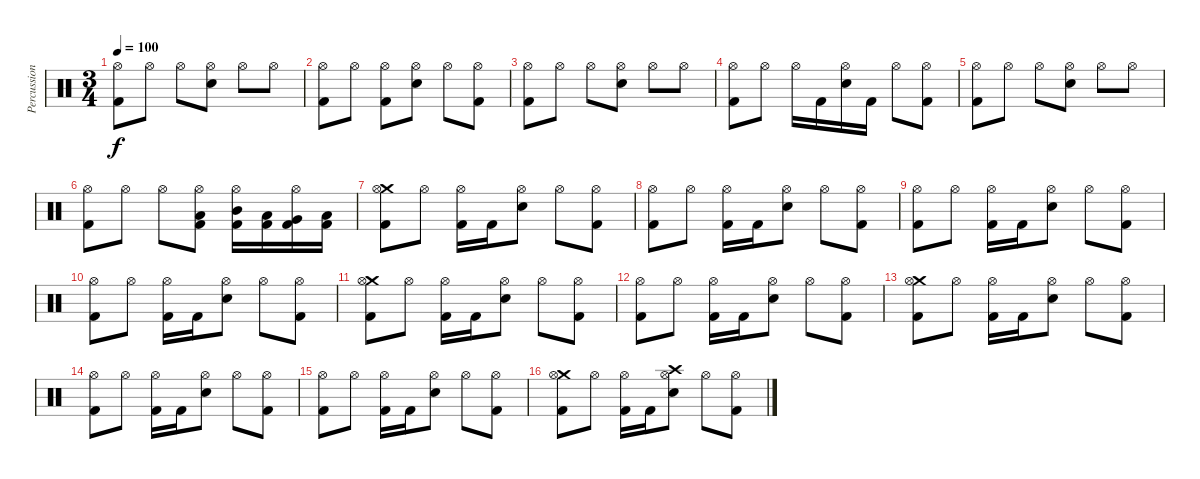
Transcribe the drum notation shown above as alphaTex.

\track ("Percussion" "Percussion") {instrument percussion}
\staff {score}
\articulation defaults
\ts (3 4)
\tempo 100
\clef neutral
\ks c
("Hi-Hat (open)" "Kick (hit) 2").8{dy f} "Hi-Hat (open)".8 "Hi-Hat (open)".8 ("Hi-Hat (open)" "Electric Snare (hit)").8 "Hi-Hat (open)".8 "Hi-Hat (open)".8 |
("Hi-Hat (open)" "Kick (hit) 2").8 "Hi-Hat (open)".8 ("Hi-Hat (open)" "Kick (hit) 2").8 ("Hi-Hat (open)" "Electric Snare (hit)").8 "Hi-Hat (open)".8 ("Hi-Hat (open)" "Kick (hit) 2").8 |
("Hi-Hat (open)" "Kick (hit) 2").8 "Hi-Hat (open)".8 "Hi-Hat (open)".8 ("Hi-Hat (open)" "Electric Snare (hit)").8 "Hi-Hat (open)".8 "Hi-Hat (open)".8 |
("Hi-Hat (open)" "Kick (hit) 2").8 "Hi-Hat (open)".8 "Hi-Hat (open)".16 "Kick (hit) 2".16 ("Hi-Hat (open)" "Electric Snare (hit)").16 "Kick (hit) 2".16 "Hi-Hat (open)".8 ("Hi-Hat (open)" "Kick (hit) 2").8 |
("Hi-Hat (open)" "Kick (hit) 2").8 "Hi-Hat (open)".8 "Hi-Hat (open)".8 ("Hi-Hat (open)" "Electric Snare (hit)").8 "Hi-Hat (open)".8 "Hi-Hat (open)".8 |
("Hi-Hat (open)" "Kick (hit) 2").8 "Hi-Hat (open)".8 "Hi-Hat (open)".8 ("Hi-Hat (open)" "Low Floor Tom (hit)" "Kick (hit) 2").8 ("Hi-Hat (open)" "Mid Tom (hit)" "Kick (hit) 2").16 ("Low Tom (hit)" "Kick (hit) 2").16 ("Hi-Hat (open)" "Very Low Tom (hit)" "Kick (hit) 2").16 ("Low Floor Tom (hit)" "Kick (hit) 2").16 |
("Crash medium (hit)" "Hi-Hat (open)" "Kick (hit) 2").8 "Hi-Hat (open)".8 ("Hi-Hat (open)" "Kick (hit) 2").16 "Kick (hit) 2".16 ("Hi-Hat (open)" "Electric Snare (hit)").8 "Hi-Hat (open)".8 ("Hi-Hat (open)" "Kick (hit) 2").8 |
("Hi-Hat (open)" "Kick (hit) 2").8 "Hi-Hat (open)".8 ("Hi-Hat (open)" "Kick (hit) 2").16 "Kick (hit) 2".16 ("Hi-Hat (open)" "Electric Snare (hit)").8 "Hi-Hat (open)".8 ("Hi-Hat (open)" "Kick (hit) 2").8 |
("Hi-Hat (open)" "Kick (hit) 2").8 "Hi-Hat (open)".8 ("Hi-Hat (open)" "Kick (hit) 2").16 "Kick (hit) 2".16 ("Hi-Hat (open)" "Electric Snare (hit)").8 "Hi-Hat (open)".8 ("Hi-Hat (open)" "Kick (hit) 2").8 |
("Hi-Hat (open)" "Kick (hit) 2").8 "Hi-Hat (open)".8 ("Hi-Hat (open)" "Kick (hit) 2").16 "Kick (hit) 2".16 ("Hi-Hat (open)" "Electric Snare (hit)").8 "Hi-Hat (open)".8 ("Hi-Hat (open)" "Kick (hit) 2").8 |
("Crash medium (hit)" "Hi-Hat (open)" "Kick (hit) 2").8 "Hi-Hat (open)".8 ("Hi-Hat (open)" "Kick (hit) 2").16 "Kick (hit) 2".16 ("Hi-Hat (open)" "Electric Snare (hit)").8 "Hi-Hat (open)".8 ("Hi-Hat (open)" "Kick (hit) 2").8 |
("Hi-Hat (open)" "Kick (hit) 2").8 "Hi-Hat (open)".8 ("Hi-Hat (open)" "Kick (hit) 2").16 "Kick (hit) 2".16 ("Hi-Hat (open)" "Electric Snare (hit)").8 "Hi-Hat (open)".8 ("Hi-Hat (open)" "Kick (hit) 2").8 |
("Crash medium (hit)" "Hi-Hat (open)" "Kick (hit) 2").8 "Hi-Hat (open)".8 ("Hi-Hat (open)" "Kick (hit) 2").16 "Kick (hit) 2".16 ("Hi-Hat (open)" "Electric Snare (hit)").8 "Hi-Hat (open)".8 ("Hi-Hat (open)" "Kick (hit) 2").8 |
("Hi-Hat (open)" "Kick (hit) 2").8 "Hi-Hat (open)".8 ("Hi-Hat (open)" "Kick (hit) 2").16 "Kick (hit) 2".16 ("Hi-Hat (open)" "Electric Snare (hit)").8 "Hi-Hat (open)".8 ("Hi-Hat (open)" "Kick (hit) 2").8 |
("Hi-Hat (open)" "Kick (hit) 2").8 "Hi-Hat (open)".8 ("Hi-Hat (open)" "Kick (hit) 2").16 "Kick (hit) 2".16 ("Hi-Hat (open)" "Electric Snare (hit)").8 "Hi-Hat (open)".8 ("Hi-Hat (open)" "Kick (hit) 2").8 |
("Crash medium (hit)" "Hi-Hat (open)" "Kick (hit) 2").8 "Hi-Hat (open)".8 ("Hi-Hat (open)" "Kick (hit) 2").16 "Kick (hit) 2".16 ("Crash high (hit)" "Hi-Hat (open)" "Electric Snare (hit)").8 "Hi-Hat (open)".8 ("Hi-Hat (open)" "Kick (hit) 2").8
